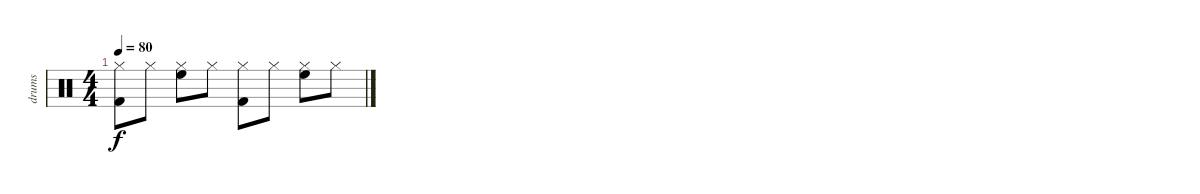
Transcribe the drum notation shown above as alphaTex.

\track ("drums" "drums") {instrument percussion}
\staff {score}
\articulation defaults
\ts (4 4)
\tempo 80
\clef neutral
\ks c
("Hi-Hat (closed)" "Kick (hit) 2").8{dy f} "Hi-Hat (closed)".8 ("Hi-Hat (closed)" "High Floor Tom (hit)").8 "Hi-Hat (closed)".8 ("Hi-Hat (closed)" "Kick (hit) 2").8 "Hi-Hat (closed)".8 ("Hi-Hat (closed)" "High Floor Tom (hit)").8 "Hi-Hat (closed)".8
